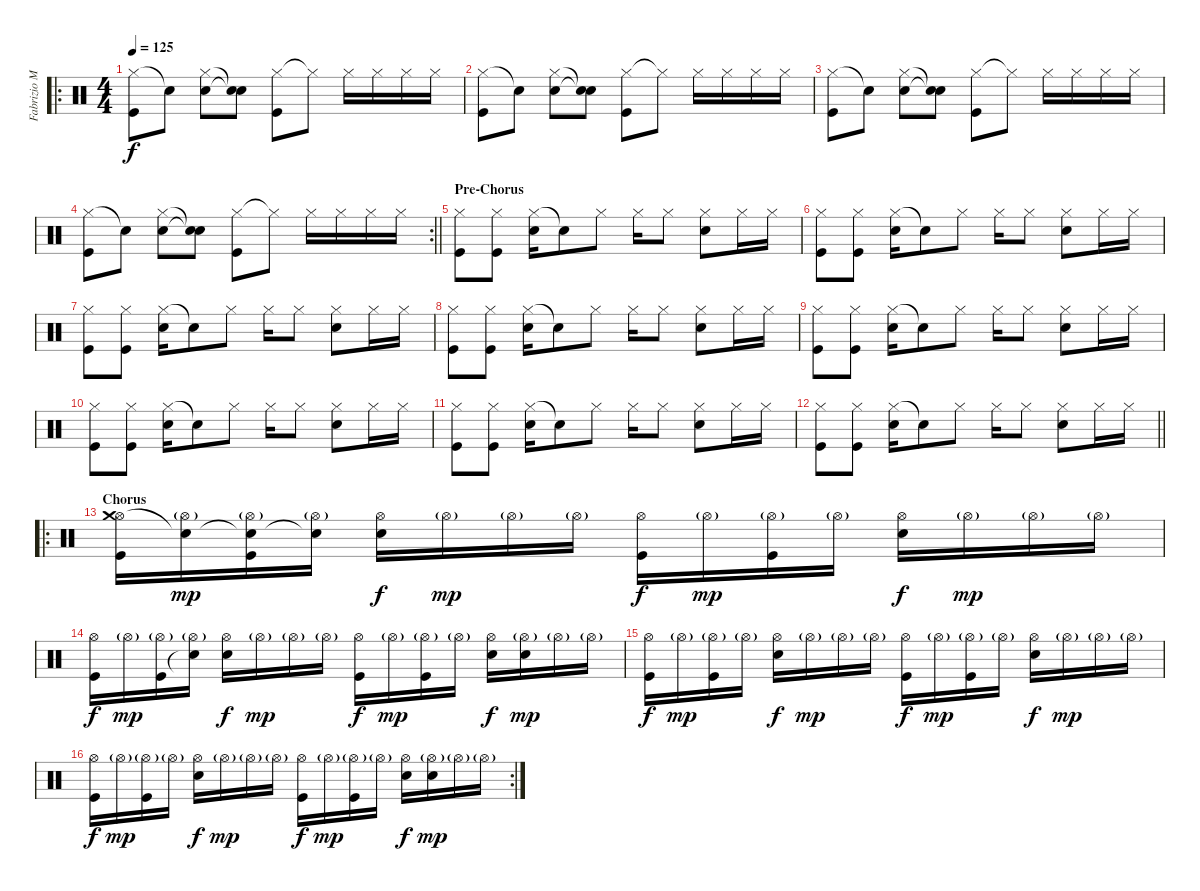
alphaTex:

\track ("Fabrizio Moretti" "Fabrizio M") {instrument percussion}
\staff {score}
\articulation defaults
\ro
\ts (4 4)
\tempo 125
\clef neutral
\ks c
("Hi-Hat (closed)" "Kick (hit)").8{dy f} "Snare (hit)"{t}.8 ("Hi-Hat (closed)" "Electric Snare (hit)").8 ("Snare (hit)"{t} "Snare (hit)"{t}).8 ("Hi-Hat (closed)" "Kick (hit)").8 "Hi-Hat (closed)"{t}.8 "Hi-Hat (closed)".16 "Hi-Hat (closed)".16 "Hi-Hat (closed)".16 "Hi-Hat (closed)".16 |
("Hi-Hat (closed)" "Kick (hit)").8 "Snare (hit)"{t}.8 ("Hi-Hat (closed)" "Electric Snare (hit)").8 ("Snare (hit)"{t} "Snare (hit)"{t}).8 ("Hi-Hat (closed)" "Kick (hit)").8 "Hi-Hat (closed)"{t}.8 "Hi-Hat (closed)".16 "Hi-Hat (closed)".16 "Hi-Hat (closed)".16 "Hi-Hat (closed)".16 |
("Hi-Hat (closed)" "Kick (hit)").8 "Snare (hit)"{t}.8 ("Hi-Hat (closed)" "Electric Snare (hit)").8 ("Snare (hit)"{t} "Snare (hit)"{t}).8 ("Hi-Hat (closed)" "Kick (hit)").8 "Hi-Hat (closed)"{t}.8 "Hi-Hat (closed)".16 "Hi-Hat (closed)".16 "Hi-Hat (closed)".16 "Hi-Hat (closed)".16 |
\rc 2
\barLineRight lightlight
("Hi-Hat (closed)" "Kick (hit)").8 "Snare (hit)"{t}.8 ("Hi-Hat (closed)" "Electric Snare (hit)").8 ("Snare (hit)"{t} "Snare (hit)"{t}).8 ("Hi-Hat (closed)" "Kick (hit)").8 "Hi-Hat (closed)"{t}.8 "Hi-Hat (closed)".16 "Hi-Hat (closed)".16 "Hi-Hat (closed)".16 "Hi-Hat (closed)".16 |
\section ("" "Pre-Chorus")
("Hi-Hat (closed)" "Kick (hit)").8 ("Hi-Hat (closed)" "Kick (hit)").8 ("Hi-Hat (closed)" "Electric Snare (hit)").16 "Snare (hit)"{t}.8 "Hi-Hat (closed)".8 "Hi-Hat (closed)".16 "Hi-Hat (closed)".8 ("Hi-Hat (closed)" "Electric Snare (hit)").8 "Hi-Hat (closed)".16 "Hi-Hat (closed)".16 |
("Hi-Hat (closed)" "Kick (hit)").8 ("Hi-Hat (closed)" "Kick (hit)").8 ("Hi-Hat (closed)" "Electric Snare (hit)").16 "Snare (hit)"{t}.8 "Hi-Hat (closed)".8 "Hi-Hat (closed)".16 "Hi-Hat (closed)".8 ("Hi-Hat (closed)" "Electric Snare (hit)").8 "Hi-Hat (closed)".16 "Hi-Hat (closed)".16 |
("Hi-Hat (closed)" "Kick (hit)").8 ("Hi-Hat (closed)" "Kick (hit)").8 ("Hi-Hat (closed)" "Electric Snare (hit)").16 "Snare (hit)"{t}.8 "Hi-Hat (closed)".8 "Hi-Hat (closed)".16 "Hi-Hat (closed)".8 ("Hi-Hat (closed)" "Electric Snare (hit)").8 "Hi-Hat (closed)".16 "Hi-Hat (closed)".16 |
("Hi-Hat (closed)" "Kick (hit)").8 ("Hi-Hat (closed)" "Kick (hit)").8 ("Hi-Hat (closed)" "Electric Snare (hit)").16 "Snare (hit)"{t}.8 "Hi-Hat (closed)".8 "Hi-Hat (closed)".16 "Hi-Hat (closed)".8 ("Hi-Hat (closed)" "Electric Snare (hit)").8 "Hi-Hat (closed)".16 "Hi-Hat (closed)".16 |
("Hi-Hat (closed)" "Kick (hit)").8 ("Hi-Hat (closed)" "Kick (hit)").8 ("Hi-Hat (closed)" "Electric Snare (hit)").16 "Snare (hit)"{t}.8 "Hi-Hat (closed)".8 "Hi-Hat (closed)".16 "Hi-Hat (closed)".8 ("Hi-Hat (closed)" "Electric Snare (hit)").8 "Hi-Hat (closed)".16 "Hi-Hat (closed)".16 |
("Hi-Hat (closed)" "Kick (hit)").8 ("Hi-Hat (closed)" "Kick (hit)").8 ("Hi-Hat (closed)" "Electric Snare (hit)").16 "Snare (hit)"{t}.8 "Hi-Hat (closed)".8 "Hi-Hat (closed)".16 "Hi-Hat (closed)".8 ("Hi-Hat (closed)" "Electric Snare (hit)").8 "Hi-Hat (closed)".16 "Hi-Hat (closed)".16 |
("Hi-Hat (closed)" "Kick (hit)").8 ("Hi-Hat (closed)" "Kick (hit)").8 ("Hi-Hat (closed)" "Electric Snare (hit)").16 "Snare (hit)"{t}.8 "Hi-Hat (closed)".8 "Hi-Hat (closed)".16 "Hi-Hat (closed)".8 ("Hi-Hat (closed)" "Electric Snare (hit)").8 "Hi-Hat (closed)".16 "Hi-Hat (closed)".16 |
\barLineRight lightlight
("Hi-Hat (closed)" "Kick (hit)").8 ("Hi-Hat (closed)" "Kick (hit)").8 ("Hi-Hat (closed)" "Electric Snare (hit)").16 "Snare (hit)"{t}.8 "Hi-Hat (closed)".8 "Hi-Hat (closed)".16 "Hi-Hat (closed)".8 ("Hi-Hat (closed)" "Electric Snare (hit)").8 "Hi-Hat (closed)".16 "Hi-Hat (closed)".16 |
\ro
\section ("" "Chorus")
("Hi-Hat (open)" "Crash medium (hit)" "Kick (hit)").16 ("Hi-Hat (open)"{g} "Snare (hit)"{t}).16{dy mp} ("Hi-Hat (open)"{g} "Snare (hit)"{t} "Kick (hit)").16 ("Hi-Hat (open)"{g} "Snare (hit)"{t}).16 ("Hi-Hat (open)" "Electric Snare (hit)").16{dy f} "Hi-Hat (open)"{g}.16{dy mp} "Hi-Hat (open)"{g}.16 "Hi-Hat (open)"{g}.16 ("Hi-Hat (open)" "Kick (hit)").16{dy f} "Hi-Hat (open)"{g}.16{dy mp} ("Hi-Hat (open)"{g} "Kick (hit)").16 "Hi-Hat (open)"{g}.16 ("Hi-Hat (open)" "Electric Snare (hit)").16{dy f} "Hi-Hat (open)"{g}.16{dy mp} "Hi-Hat (open)"{g}.16 "Hi-Hat (open)"{g}.16 |
("Hi-Hat (open)" "Kick (hit)").16{dy f} "Hi-Hat (open)"{g}.16{dy mp} ("Hi-Hat (open)"{g} "Kick (hit)").16 ("Hi-Hat (open)"{g} "Snare (hit)"{t}).16 ("Hi-Hat (open)" "Electric Snare (hit)").16{dy f} "Hi-Hat (open)"{g}.16{dy mp} "Hi-Hat (open)"{g}.16 "Hi-Hat (open)"{g}.16 ("Hi-Hat (open)" "Kick (hit)").16{dy f} "Hi-Hat (open)"{g}.16{dy mp} ("Hi-Hat (open)"{g} "Kick (hit)").16 "Hi-Hat (open)"{g}.16 ("Hi-Hat (open)" "Electric Snare (hit)").16{dy f} ("Hi-Hat (open)"{g} "Electric Snare (hit)").16{dy mp} "Hi-Hat (open)"{g}.16 "Hi-Hat (open)"{g}.16 |
("Hi-Hat (open)" "Kick (hit)").16{dy f} "Hi-Hat (open)"{g}.16{dy mp} ("Hi-Hat (open)"{g} "Kick (hit)").16 "Hi-Hat (open)"{g}.16 ("Hi-Hat (open)" "Electric Snare (hit)").16{dy f} "Hi-Hat (open)"{g}.16{dy mp} "Hi-Hat (open)"{g}.16 "Hi-Hat (open)"{g}.16 ("Hi-Hat (open)" "Kick (hit)").16{dy f} "Hi-Hat (open)"{g}.16{dy mp} ("Hi-Hat (open)"{g} "Kick (hit)").16 "Hi-Hat (open)"{g}.16 ("Hi-Hat (open)" "Electric Snare (hit)").16{dy f} "Hi-Hat (open)"{g}.16{dy mp} "Hi-Hat (open)"{g}.16 "Hi-Hat (open)"{g}.16 |
\rc 2
("Hi-Hat (open)" "Kick (hit)").16{dy f} "Hi-Hat (open)"{g}.16{dy mp} ("Hi-Hat (open)"{g} "Kick (hit)").16 "Hi-Hat (open)"{g}.16 ("Hi-Hat (open)" "Electric Snare (hit)").16{dy f} "Hi-Hat (open)"{g}.16{dy mp} "Hi-Hat (open)"{g}.16 "Hi-Hat (open)"{g}.16 ("Hi-Hat (open)" "Kick (hit)").16{dy f} "Hi-Hat (open)"{g}.16{dy mp} ("Hi-Hat (open)"{g} "Kick (hit)").16 "Hi-Hat (open)"{g}.16 ("Hi-Hat (open)" "Electric Snare (hit)").16{dy f} ("Hi-Hat (open)"{g} "Electric Snare (hit)").16{dy mp} "Hi-Hat (open)"{g}.16 "Hi-Hat (open)"{g}.16
